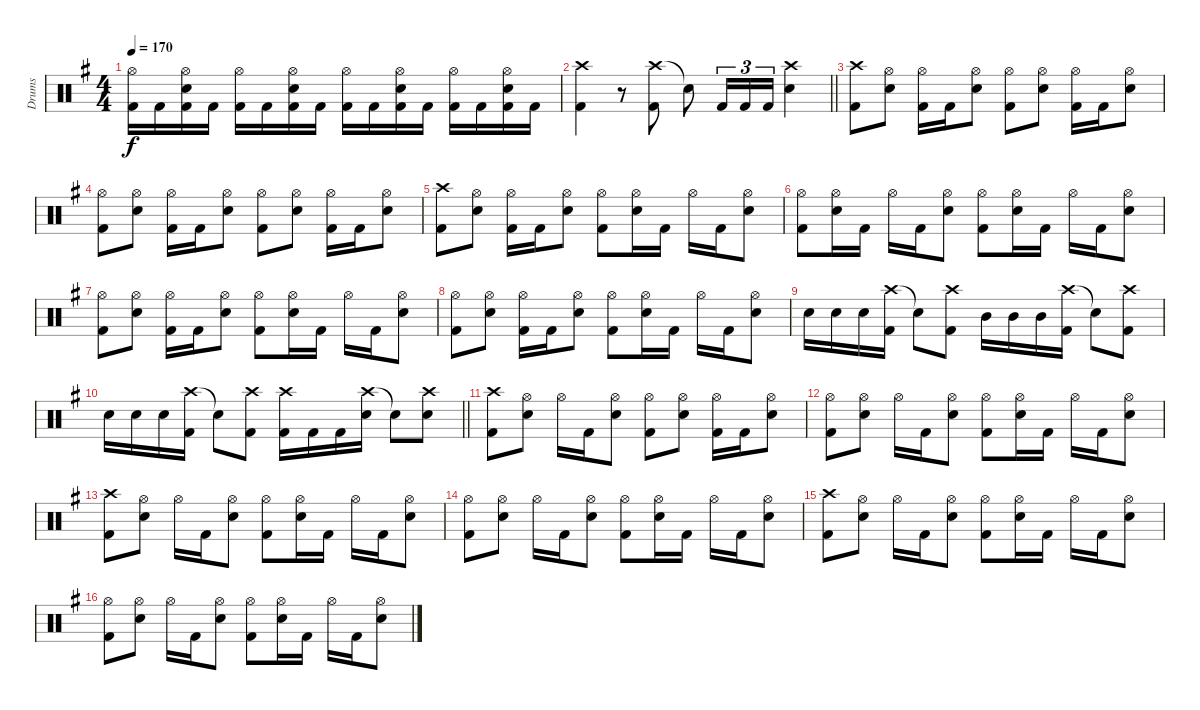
\track ("Drums" "Drums") {instrument percussion}
\staff {score}
\articulation defaults
\ts (4 4)
\tempo 170
\clef neutral
\ks g
("Hi-Hat (open)" "Kick (hit) 2").16{dy f} "Kick (hit) 2".16 ("Hi-Hat (open)" "Snare (hit) 2" "Kick (hit) 2").16 "Kick (hit) 2".16 ("Hi-Hat (open)" "Kick (hit) 2").16 "Kick (hit) 2".16 ("Hi-Hat (open)" "Snare (hit) 2" "Kick (hit) 2").16 "Kick (hit) 2".16 ("Hi-Hat (open)" "Kick (hit) 2").16 "Kick (hit) 2".16 ("Hi-Hat (open)" "Snare (hit) 2" "Kick (hit) 2").16 "Kick (hit) 2".16 ("Hi-Hat (open)" "Kick (hit) 2").16 "Kick (hit) 2".16 ("Hi-Hat (open)" "Snare (hit) 2" "Kick (hit) 2").16 "Kick (hit) 2".16 |
\barLineRight lightlight
("Crash high (hit)" "Kick (hit) 2").4 r.8 ("Crash high (hit)" "Kick (hit) 2").8 "Snare (hit)"{t}.8 "Kick (hit) 2".16{tu (3 2)} "Kick (hit) 2".16{tu (3 2)} "Kick (hit) 2".16{tu (3 2)} ("Crash high (hit)" "Snare (hit) 2").4 |
("Crash high (hit)" "Kick (hit) 2").8 ("Hi-Hat (open)" "Snare (hit) 2").8 ("Hi-Hat (open)" "Kick (hit) 2").16 "Kick (hit) 2".16 ("Hi-Hat (open)" "Snare (hit) 2").8 ("Hi-Hat (open)" "Kick (hit) 2").8 ("Hi-Hat (open)" "Snare (hit) 2").8 ("Hi-Hat (open)" "Kick (hit) 2").16 "Kick (hit) 2".16 ("Hi-Hat (open)" "Snare (hit) 2").8 |
("Hi-Hat (open)" "Kick (hit) 2").8 ("Hi-Hat (open)" "Snare (hit) 2").8 ("Hi-Hat (open)" "Kick (hit) 2").16 "Kick (hit) 2".16 ("Hi-Hat (open)" "Snare (hit) 2").8 ("Hi-Hat (open)" "Kick (hit) 2").8 ("Hi-Hat (open)" "Snare (hit) 2").8 ("Hi-Hat (open)" "Kick (hit) 2").16 "Kick (hit) 2".16 ("Hi-Hat (open)" "Snare (hit) 2").8 |
("Crash high (hit)" "Kick (hit) 2").8 ("Hi-Hat (open)" "Snare (hit) 2").8 ("Hi-Hat (open)" "Kick (hit) 2").16 "Kick (hit) 2".16 ("Hi-Hat (open)" "Snare (hit) 2").8 ("Hi-Hat (open)" "Kick (hit) 2").8 ("Hi-Hat (open)" "Snare (hit) 2").16 "Kick (hit) 2".16 "Hi-Hat (open)".16 "Kick (hit) 2".16 ("Hi-Hat (open)" "Snare (hit) 2").8 |
("Hi-Hat (open)" "Kick (hit) 2").8 ("Hi-Hat (open)" "Snare (hit) 2").16 "Kick (hit) 2".16 "Hi-Hat (open)".16 "Kick (hit) 2".16 ("Hi-Hat (open)" "Snare (hit) 2").8 ("Hi-Hat (open)" "Kick (hit) 2").8 ("Hi-Hat (open)" "Snare (hit) 2").16 "Kick (hit) 2".16 "Hi-Hat (open)".16 "Kick (hit) 2".16 ("Hi-Hat (open)" "Snare (hit) 2").8 |
("Hi-Hat (open)" "Kick (hit) 2").8 ("Hi-Hat (open)" "Snare (hit) 2").8 ("Hi-Hat (open)" "Kick (hit) 2").16 "Kick (hit) 2".16 ("Hi-Hat (open)" "Snare (hit) 2").8 ("Hi-Hat (open)" "Kick (hit) 2").8 ("Hi-Hat (open)" "Snare (hit) 2").16 "Kick (hit) 2".16 "Hi-Hat (open)".16 "Kick (hit) 2".16 ("Hi-Hat (open)" "Snare (hit) 2").8 |
("Hi-Hat (open)" "Kick (hit) 2").8 ("Hi-Hat (open)" "Snare (hit) 2").8 ("Hi-Hat (open)" "Kick (hit) 2").16 "Kick (hit) 2".16 ("Hi-Hat (open)" "Snare (hit) 2").8 ("Hi-Hat (open)" "Kick (hit) 2").8 ("Hi-Hat (open)" "Snare (hit) 2").16 "Kick (hit) 2".16 "Hi-Hat (open)".16 "Kick (hit) 2".16 ("Hi-Hat (open)" "Snare (hit) 2").8 |
"Snare (hit) 2".16 "Snare (hit) 2".16 "Snare (hit) 2".16 ("Crash high (hit)" "Kick (hit) 2").16 "Snare (hit)"{t}.8 ("Crash high (hit)" "Kick (hit) 2").8 "Mid Tom (hit)".16 "Mid Tom (hit)".16 "Mid Tom (hit)".16 ("Crash high (hit)" "Kick (hit) 2").16 "Snare (hit)"{t}.8 ("Crash high (hit)" "Kick (hit) 2").8 |
\barLineRight lightlight "Snare (hit) 2".16 "Snare (hit) 2".16 "Snare (hit) 2".16
("Crash high (hit)" "Kick (hit) 2").16 "Snare (hit)"{t}.8 ("Crash high (hit)" "Kick (hit) 2").8 ("Crash high (hit)" "Kick (hit) 2").16 "Kick (hit) 2".16 "Kick (hit) 2".16 ("Crash high (hit)" "Snare (hit) 2").16 "Snare (hit)"{t}.8 ("Crash high (hit)" "Snare (hit) 2").8 |
("Crash high (hit)" "Kick (hit) 2").8 ("Hi-Hat (open)" "Snare (hit) 2").8 "Hi-Hat (open)".16 "Kick (hit) 2".16 ("Hi-Hat (open)" "Snare (hit) 2").8 ("Hi-Hat (open)" "Kick (hit) 2").8 ("Hi-Hat (open)" "Snare (hit) 2").8 ("Hi-Hat (open)" "Kick (hit) 2").16 "Kick (hit) 2".16 ("Hi-Hat (open)" "Snare (hit) 2").8 |
("Hi-Hat (open)" "Kick (hit) 2").8 ("Hi-Hat (open)" "Snare (hit) 2").8 "Hi-Hat (open)".16 "Kick (hit) 2".16 ("Hi-Hat (open)" "Snare (hit) 2").8 ("Hi-Hat (open)" "Kick (hit) 2").8 ("Hi-Hat (open)" "Snare (hit) 2").16 "Kick (hit) 2".16 "Hi-Hat (open)".16 "Kick (hit) 2".16 ("Hi-Hat (open)" "Snare (hit) 2").8 |
("Crash high (hit)" "Kick (hit) 2").8 ("Hi-Hat (open)" "Snare (hit) 2").8 "Hi-Hat (open)".16 "Kick (hit) 2".16 ("Hi-Hat (open)" "Snare (hit) 2").8 ("Hi-Hat (open)" "Kick (hit) 2").8 ("Hi-Hat (open)" "Snare (hit) 2").16 "Kick (hit) 2".16 "Hi-Hat (open)".16 "Kick (hit) 2".16 ("Hi-Hat (open)" "Snare (hit) 2").8 |
("Hi-Hat (open)" "Kick (hit) 2").8 ("Hi-Hat (open)" "Snare (hit) 2").8 "Hi-Hat (open)".16 "Kick (hit) 2".16 ("Hi-Hat (open)" "Snare (hit) 2").8 ("Hi-Hat (open)" "Kick (hit) 2").8 ("Hi-Hat (open)" "Snare (hit) 2").16 "Kick (hit) 2".16 "Hi-Hat (open)".16 "Kick (hit) 2".16 ("Hi-Hat (open)" "Snare (hit) 2").8 |
("Crash high (hit)" "Kick (hit) 2").8 ("Hi-Hat (open)" "Snare (hit) 2").8 "Hi-Hat (open)".16 "Kick (hit) 2".16 ("Hi-Hat (open)" "Snare (hit) 2").8 ("Hi-Hat (open)" "Kick (hit) 2").8 ("Hi-Hat (open)" "Snare (hit) 2").16 "Kick (hit) 2".16 "Hi-Hat (open)".16 "Kick (hit) 2".16 ("Hi-Hat (open)" "Snare (hit) 2").8 |
("Hi-Hat (open)" "Kick (hit) 2").8 ("Hi-Hat (open)" "Snare (hit) 2").8 "Hi-Hat (open)".16 "Kick (hit) 2".16 ("Hi-Hat (open)" "Snare (hit) 2").8 ("Hi-Hat (open)" "Kick (hit) 2").8 ("Hi-Hat (open)" "Snare (hit) 2").16 "Kick (hit) 2".16 "Hi-Hat (open)".16 "Kick (hit) 2".16 ("Hi-Hat (open)" "Snare (hit) 2").8
